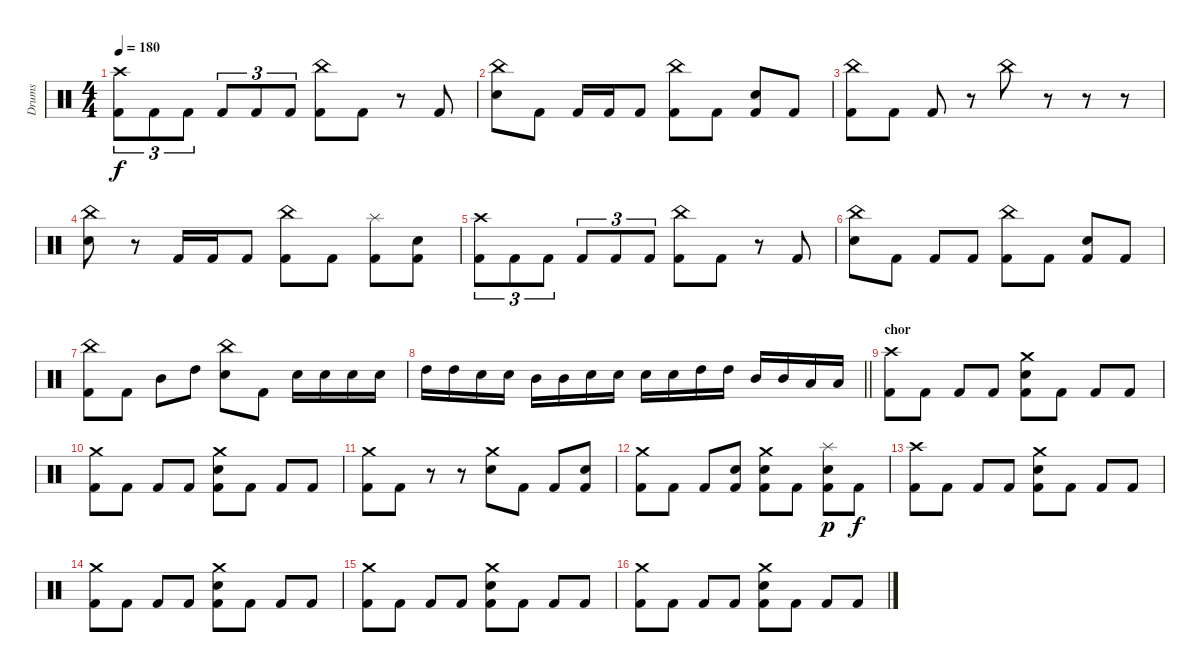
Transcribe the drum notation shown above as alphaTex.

\track ("Drums" "Drums") {instrument percussion}
\staff {score}
\articulation defaults
\ts (4 4)
\tempo 180
\clef neutral
\ks c
("Crash high (hit)" "Kick (hit) 2").8{tu (3 2) dy f} "Kick (hit) 2".8{tu (3 2)} "Kick (hit) 2".8{tu (3 2)} "Kick (hit) 2".8{tu (3 2)} "Kick (hit) 2".8{tu (3 2)} "Kick (hit) 2".8{tu (3 2)} ("China (hit)" "Kick (hit) 2").8 "Kick (hit) 2".8 r.8 "Kick (hit) 2".8 |
("China (hit)" "Electric Snare (hit)").8 "Kick (hit) 2".8 "Kick (hit) 2".16 "Kick (hit) 2".16 "Kick (hit) 2".8 ("China (hit)" "Kick (hit) 2").8 "Kick (hit) 2".8 ("Electric Snare (hit)" "Kick (hit) 2").8 "Kick (hit) 2".8 |
("China (hit)" "Kick (hit) 2").8 "Kick (hit) 2".8 "Kick (hit) 2".8 r.8 "China (hit)".8 r.8 r.8 r.8 |
("China (hit)" "Electric Snare (hit)").8 r.8 "Kick (hit) 2".16 "Kick (hit) 2".16 "Kick (hit) 2".8 ("China (hit)" "Kick (hit) 2").8 "Kick (hit) 2".8 ("Splash (hit)" "Kick (hit) 2").8 ("Electric Snare (hit)" "Kick (hit) 2").8 |
("Crash high (hit)" "Kick (hit) 2").8{tu (3 2)} "Kick (hit) 2".8{tu (3 2)} "Kick (hit) 2".8{tu (3 2)} "Kick (hit) 2".8{tu (3 2)} "Kick (hit) 2".8{tu (3 2)} "Kick (hit) 2".8{tu (3 2)} ("China (hit)" "Kick (hit) 2").8 "Kick (hit) 2".8 r.8 "Kick (hit) 2".8 |
("China (hit)" "Electric Snare (hit)").8 "Kick (hit) 2".8 "Kick (hit) 2".8 "Kick (hit) 2".8 ("China (hit)" "Kick (hit) 2").8 "Kick (hit) 2".8 ("Electric Snare (hit)" "Kick (hit) 2").8 "Kick (hit) 2".8 |
("China (hit)" "Kick (hit) 2").8 "Kick (hit) 2".8 "Mid Tom (hit)".8 "High Tom (hit)".8 ("China (hit)" "Electric Snare (hit)").8 "Kick (hit) 2".8 "Electric Snare (hit)".16 "Electric Snare (hit)".16 "Electric Snare (hit)".16 "Electric Snare (hit)".16 |
\barLineRight lightlight "High Tom (hit)".16 "High Tom (hit)".16 "Electric Snare (hit)".16 "Electric Snare (hit)".16 "Mid Tom (hit)".16 "Mid Tom (hit)".16 "Electric Snare (hit)".16 "Electric Snare (hit)".16 "Electric Snare (hit)".16 "Electric Snare (hit)".16 "High Tom (hit)".16 "High Tom (hit)".16 "Mid Tom (hit)".16 "Mid Tom (hit)".16 "Low Tom (hit)".16 "Low Tom (hit)".16
|
\section ("" "chor")
("Crash high (hit)" "Kick (hit) 2").8 "Kick (hit) 2".8 "Kick (hit) 2".8 "Kick (hit) 2".8 ("Crash medium (hit)" "Electric Snare (hit)" "Kick (hit) 2").8 "Kick (hit) 2".8 "Kick (hit) 2".8 "Kick (hit) 2".8 |
("Crash medium (hit)" "Kick (hit) 2").8 "Kick (hit) 2".8 "Kick (hit) 2".8 "Kick (hit) 2".8 ("Crash medium (hit)" "Electric Snare (hit)" "Kick (hit) 2").8 "Kick (hit) 2".8 "Kick (hit) 2".8 "Kick (hit) 2".8 |
("Crash medium (hit)" "Kick (hit) 2").8 "Kick (hit) 2".8 r.8 r.8 ("Crash medium (hit)" "Electric Snare (hit)").8 "Kick (hit) 2".8 "Kick (hit) 2".8 ("Electric Snare (hit)" "Kick (hit) 2").8 |
("Crash medium (hit)" "Kick (hit) 2").8 "Kick (hit) 2".8 "Kick (hit) 2".8 ("Electric Snare (hit)" "Kick (hit) 2").8 ("Crash medium (hit)" "Electric Snare (hit)" "Kick (hit) 2").8 "Kick (hit) 2".8 ("Splash (hit)" "Electric Snare (hit)" "Kick (hit) 2").8{dy p} "Kick (hit) 2".8{dy f} |
("Crash high (hit)" "Kick (hit) 2").8 "Kick (hit) 2".8 "Kick (hit) 2".8 "Kick (hit) 2".8 ("Crash medium (hit)" "Electric Snare (hit)" "Kick (hit) 2").8 "Kick (hit) 2".8 "Kick (hit) 2".8 "Kick (hit) 2".8 |
("Crash medium (hit)" "Kick (hit) 2").8 "Kick (hit) 2".8 "Kick (hit) 2".8 "Kick (hit) 2".8 ("Crash medium (hit)" "Electric Snare (hit)" "Kick (hit) 2").8 "Kick (hit) 2".8 "Kick (hit) 2".8 "Kick (hit) 2".8 |
("Crash medium (hit)" "Kick (hit) 2").8 "Kick (hit) 2".8 "Kick (hit) 2".8 "Kick (hit) 2".8 ("Crash medium (hit)" "Electric Snare (hit)" "Kick (hit) 2").8 "Kick (hit) 2".8 "Kick (hit) 2".8 "Kick (hit) 2".8 |
("Crash medium (hit)" "Kick (hit) 2").8 "Kick (hit) 2".8 "Kick (hit) 2".8 "Kick (hit) 2".8 ("Crash medium (hit)" "Electric Snare (hit)" "Kick (hit) 2").8 "Kick (hit) 2".8 "Kick (hit) 2".8 "Kick (hit) 2".8
